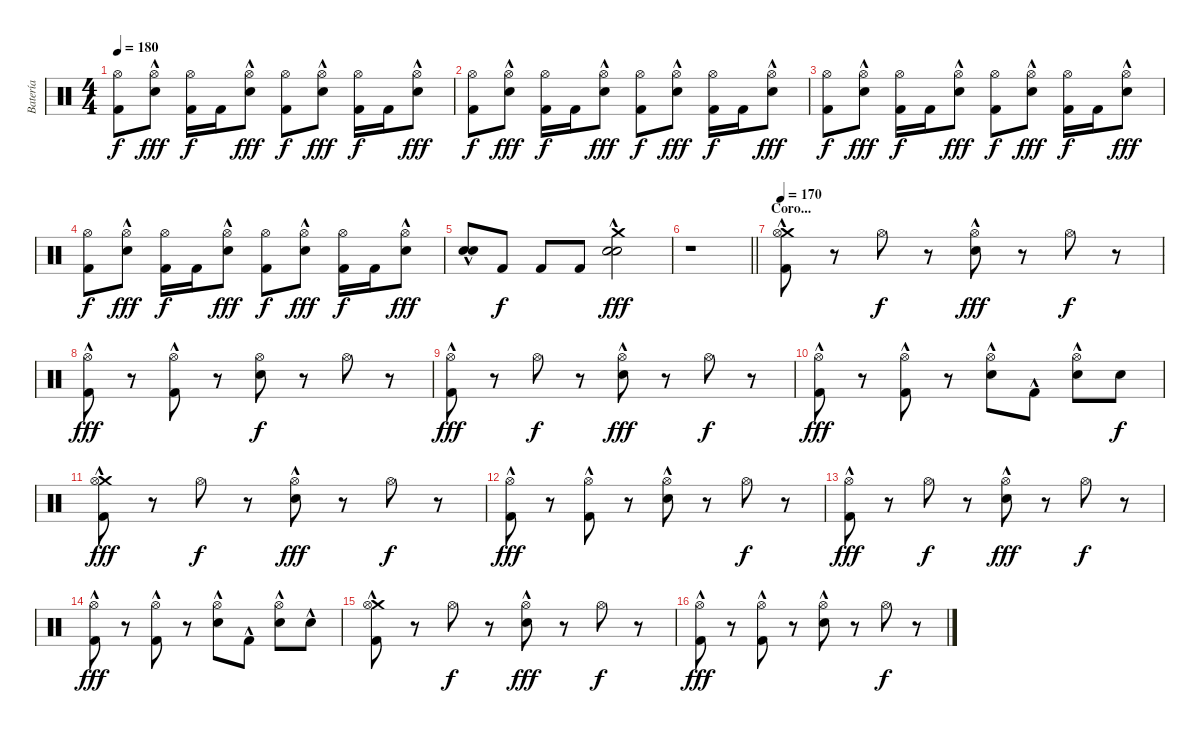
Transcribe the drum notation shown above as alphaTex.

\track ("Batería" "Batería") {instrument percussion}
\staff {score}
\articulation defaults
\ts (4 4)
\tempo 180
\clef neutral
\ks c
("Hi-Hat (open)" "Kick (hit) 2").8{dy f} ("Snare (hit) 2"{hac} "Hi-Hat (open)").8{dy fff} ("Hi-Hat (open)" "Kick (hit) 2").16{dy f} "Kick (hit) 2".16 ("Snare (hit) 2"{hac} "Hi-Hat (open)").8{dy fff} ("Hi-Hat (open)" "Kick (hit) 2").8{dy f} ("Snare (hit) 2"{hac} "Hi-Hat (open)").8{dy fff} ("Hi-Hat (open)" "Kick (hit) 2").16{dy f} "Kick (hit) 2".16 ("Snare (hit) 2"{hac} "Hi-Hat (open)").8{dy fff} |
("Hi-Hat (open)" "Kick (hit) 2").8{dy f} ("Snare (hit) 2"{hac} "Hi-Hat (open)").8{dy fff} ("Hi-Hat (open)" "Kick (hit) 2").16{dy f} "Kick (hit) 2".16 ("Snare (hit) 2"{hac} "Hi-Hat (open)").8{dy fff} ("Hi-Hat (open)" "Kick (hit) 2").8{dy f} ("Snare (hit) 2"{hac} "Hi-Hat (open)").8{dy fff} ("Hi-Hat (open)" "Kick (hit) 2").16{dy f} "Kick (hit) 2".16 ("Snare (hit) 2"{hac} "Hi-Hat (open)").8{dy fff} |
("Hi-Hat (open)" "Kick (hit) 2").8{dy f} ("Snare (hit) 2"{hac} "Hi-Hat (open)").8{dy fff} ("Hi-Hat (open)" "Kick (hit) 2").16{dy f} "Kick (hit) 2".16 ("Snare (hit) 2"{hac} "Hi-Hat (open)").8{dy fff} ("Hi-Hat (open)" "Kick (hit) 2").8{dy f} ("Snare (hit) 2"{hac} "Hi-Hat (open)").8{dy fff} ("Hi-Hat (open)" "Kick (hit) 2").16{dy f} "Kick (hit) 2".16 ("Snare (hit) 2"{hac} "Hi-Hat (open)").8{dy fff} |
("Hi-Hat (open)" "Kick (hit) 2").8{dy f} ("Snare (hit) 2"{hac} "Hi-Hat (open)").8{dy fff} ("Hi-Hat (open)" "Kick (hit) 2").16{dy f} "Kick (hit) 2".16 ("Snare (hit) 2"{hac} "Hi-Hat (open)").8{dy fff} ("Hi-Hat (open)" "Kick (hit) 2").8{dy f} ("Snare (hit) 2"{hac} "Hi-Hat (open)").8{dy fff} ("Hi-Hat (open)" "Kick (hit) 2").16{dy f} "Kick (hit) 2".16 ("Snare (hit) 2"{hac} "Hi-Hat (open)").8{dy fff} |
("Snare (hit) 2"{hac} "Snare (hit) 2"{hac}).8 "Kick (hit) 2".8{dy f} "Kick (hit) 2".8 "Kick (hit) 2".8 ("Crash medium (hit)"{hac} "Snare (hit) 2"{hac} "Snare (hit) 2"{hac}).2{dy fff} |
\barLineRight lightlight
r.1 |
\section ("" "Coro...")
\tempo 170
("Crash medium (hit)"{hac} "Hi-Hat (open)" "Kick (hit) 2"{hac}).8 r.8 "Hi-Hat (open)".8{dy f} r.8 ("Snare (hit) 2"{hac} "Hi-Hat (open)").8{dy fff} r.8 "Hi-Hat (open)".8{dy f} r.8 |
("Hi-Hat (open)" "Kick (hit) 2"{hac}).8{dy fff} r.8 ("Hi-Hat (open)" "Kick (hit) 2"{hac}).8 r.8 ("Snare (hit) 2" "Hi-Hat (open)").8{dy f} r.8 "Hi-Hat (open)".8 r.8 |
("Hi-Hat (open)" "Kick (hit) 2"{hac}).8{dy fff} r.8 "Hi-Hat (open)".8{dy f} r.8 ("Snare (hit) 2"{hac} "Hi-Hat (open)").8{dy fff} r.8 "Hi-Hat (open)".8{dy f} r.8 |
("Hi-Hat (open)" "Kick (hit) 2"{hac}).8{dy fff} r.8 ("Hi-Hat (open)" "Kick (hit) 2"{hac}).8 r.8 ("Snare (hit) 2"{hac} "Hi-Hat (open)").8 "Kick (hit) 2"{hac}.8 ("Snare (hit) 2"{hac} "Hi-Hat (open)").8 "Snare (hit) 2".8{dy f} |
("Crash medium (hit)"{hac} "Hi-Hat (open)" "Kick (hit) 2"{hac}).8{dy fff} r.8 "Hi-Hat (open)".8{dy f} r.8 ("Snare (hit) 2"{hac} "Hi-Hat (open)").8{dy fff} r.8 "Hi-Hat (open)".8{dy f} r.8 |
("Hi-Hat (open)" "Kick (hit) 2"{hac}).8{dy fff} r.8 ("Hi-Hat (open)" "Kick (hit) 2"{hac}).8 r.8 ("Snare (hit) 2"{hac} "Hi-Hat (open)").8 r.8 "Hi-Hat (open)".8{dy f} r.8 |
("Hi-Hat (open)" "Kick (hit) 2"{hac}).8{dy fff} r.8 "Hi-Hat (open)".8{dy f} r.8 ("Snare (hit) 2"{hac} "Hi-Hat (open)").8{dy fff} r.8 "Hi-Hat (open)".8{dy f} r.8 |
("Hi-Hat (open)" "Kick (hit) 2"{hac}).8{dy fff} r.8 ("Hi-Hat (open)" "Kick (hit) 2"{hac}).8 r.8 ("Snare (hit) 2"{hac} "Hi-Hat (open)").8 "Kick (hit) 2"{hac}.8 ("Snare (hit) 2"{hac} "Hi-Hat (open)").8 "Snare (hit) 2"{hac}.8 |
("Crash medium (hit)"{hac} "Hi-Hat (open)" "Kick (hit) 2"{hac}).8 r.8 "Hi-Hat (open)".8{dy f} r.8 ("Snare (hit) 2"{hac} "Hi-Hat (open)").8{dy fff} r.8 "Hi-Hat (open)".8{dy f} r.8 |
("Hi-Hat (open)" "Kick (hit) 2"{hac}).8{dy fff} r.8 ("Hi-Hat (open)" "Kick (hit) 2"{hac}).8 r.8 ("Snare (hit) 2"{hac} "Hi-Hat (open)").8 r.8 "Hi-Hat (open)".8{dy f} r.8
